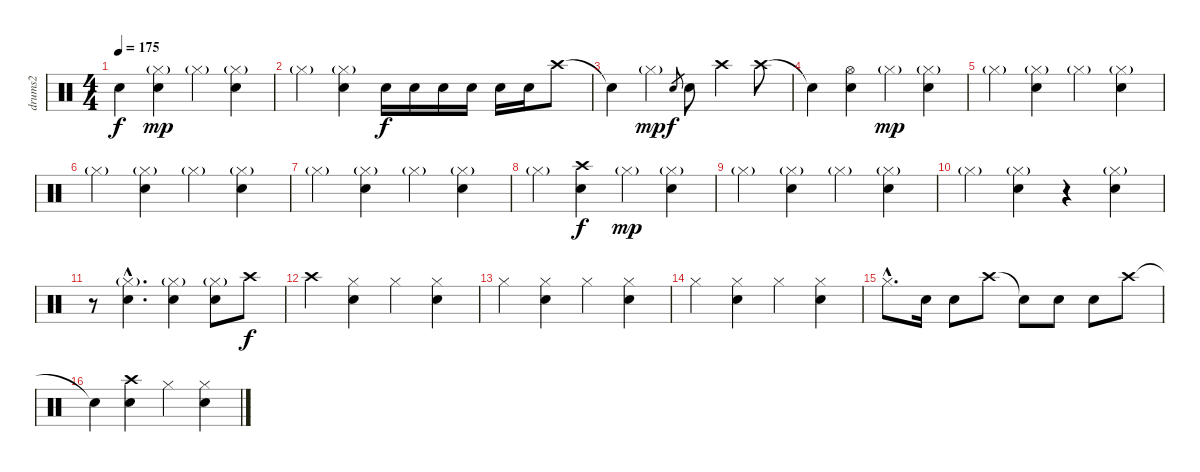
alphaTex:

\track ("drums2" "drums2") {instrument percussion}
\staff {score}
\articulation defaults
\ts (4 4)
\tempo 175
\clef neutral
\ks c "Snare (hit)"{t}.4{dy f}
("Hi-Hat (closed)"{g} "Snare (hit) 2").4{dy mp} "Hi-Hat (closed)"{g}.4 ("Hi-Hat (closed)"{g} "Snare (hit) 2").4 |
"Hi-Hat (closed)"{g}.4 ("Hi-Hat (closed)"{g} "Snare (hit) 2").4 "Snare (hit) 2".16{dy f} "Snare (hit) 2".16 "Snare (hit) 2".16 "Snare (hit) 2".16 "Snare (hit) 2".16 "Snare (hit) 2".16 "Crash high (hit)".8 |
"Snare (hit)"{t}.4 "Hi-Hat (closed)"{g}.4{dy mp} "Snare (hit) 2".8{gr dy f} "Snare (hit) 2".8 "Crash high (hit)".4 "Crash high (hit)".8 |
"Snare (hit)"{t}.4 ("Hi-Hat (open)" "Snare (hit) 2").4 "Hi-Hat (closed)"{g}.4{dy mp} ("Hi-Hat (closed)"{g} "Snare (hit) 2").4 |
"Hi-Hat (closed)"{g}.4 ("Hi-Hat (closed)"{g} "Snare (hit) 2").4 "Hi-Hat (closed)"{g}.4 ("Hi-Hat (closed)"{g} "Snare (hit) 2").4 |
"Hi-Hat (closed)"{g}.4 ("Hi-Hat (closed)"{g} "Snare (hit) 2").4 "Hi-Hat (closed)"{g}.4 ("Hi-Hat (closed)"{g} "Snare (hit) 2").4 |
"Hi-Hat (closed)"{g}.4 ("Hi-Hat (closed)"{g} "Snare (hit) 2").4 "Hi-Hat (closed)"{g}.4 ("Hi-Hat (closed)"{g} "Snare (hit) 2").4 |
"Hi-Hat (closed)"{g}.4 ("Crash high (hit)" "Snare (hit) 2").4{dy f} "Hi-Hat (closed)"{g}.4{dy mp} ("Hi-Hat (closed)"{g} "Snare (hit) 2").4 |
"Hi-Hat (closed)"{g}.4 ("Hi-Hat (closed)"{g} "Snare (hit) 2").4 "Hi-Hat (closed)"{g}.4 ("Hi-Hat (closed)"{g} "Snare (hit) 2").4 |
"Hi-Hat (closed)"{g}.4 ("Hi-Hat (closed)"{g} "Snare (hit) 2").4 r.4 ("Hi-Hat (closed)"{g} "Snare (hit) 2").4 |
r.8 ("Hi-Hat (closed)"{g hac} "Snare (hit) 2"{hac}).4{d} ("Hi-Hat (closed)"{g} "Snare (hit) 2").4 ("Hi-Hat (closed)"{g} "Snare (hit) 2").8 "Crash high (hit)".8{dy f} |
"Crash high (hit)".4 ("Hi-Hat (closed)" "Snare (hit) 2").4 "Hi-Hat (closed)".4 ("Hi-Hat (closed)" "Snare (hit) 2").4 |
"Hi-Hat (closed)".4 ("Hi-Hat (closed)" "Snare (hit) 2").4 "Hi-Hat (closed)".4 ("Hi-Hat (closed)" "Snare (hit) 2").4 |
"Hi-Hat (closed)".4 ("Hi-Hat (closed)" "Snare (hit) 2").4 "Hi-Hat (closed)".4 ("Hi-Hat (closed)" "Snare (hit) 2").4 |
"Hi-Hat (closed)"{hac}.8{d} "Snare (hit) 2".16 "Snare (hit) 2".8 "Crash high (hit)".8 "Snare (hit)"{t}.8 "Snare (hit) 2".8 "Snare (hit) 2".8 "Crash high (hit)".8 |
"Snare (hit)"{t}.4 ("Crash high (hit)" "Snare (hit) 2").4 "Hi-Hat (closed)".4 ("Hi-Hat (closed)" "Snare (hit) 2").4
